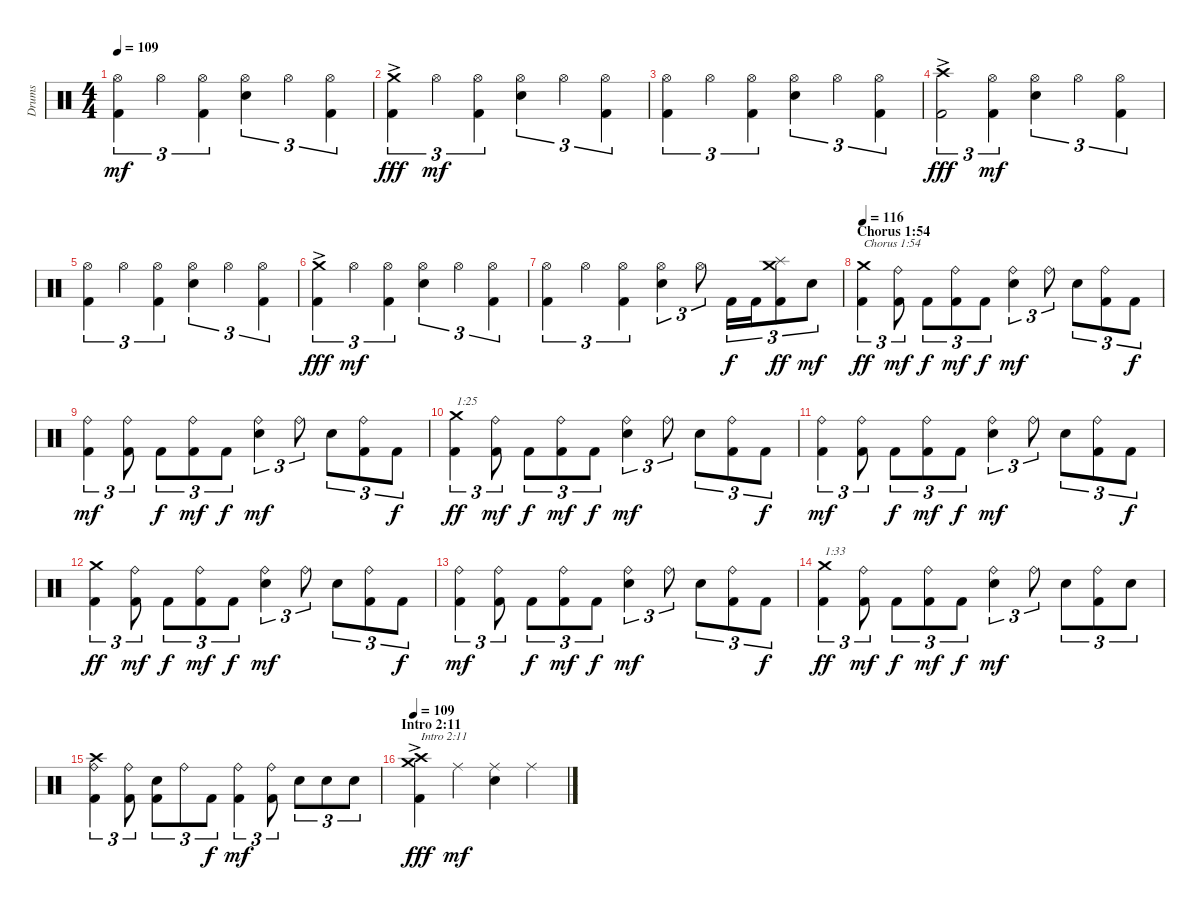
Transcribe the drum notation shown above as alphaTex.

\track ("Drums" "Drums") {instrument percussion}
\staff {score}
\articulation defaults
\ts (4 4)
\tempo 109
\clef neutral
\ks c
("Kick (hit) 2" "Hi-Hat (open)").4{tu (3 2) dy mf} "Hi-Hat (open)".4{tu (3 2)} ("Kick (hit) 2" "Hi-Hat (open)").4{tu (3 2)} ("Electric Snare (hit)" "Hi-Hat (open)").4{tu (3 2)} "Hi-Hat (open)".4{tu (3 2)} ("Kick (hit) 2" "Hi-Hat (open)").4{tu (3 2)} |
("Kick (hit) 2" "Crash medium (hit)"{ac}).4{tu (3 2) dy fff} "Hi-Hat (open)".4{tu (3 2) dy mf} ("Kick (hit) 2" "Hi-Hat (open)").4{tu (3 2)} ("Electric Snare (hit)" "Hi-Hat (open)").4{tu (3 2)} "Hi-Hat (open)".4{tu (3 2)} ("Kick (hit) 2" "Hi-Hat (open)").4{tu (3 2)} |
("Kick (hit) 2" "Hi-Hat (open)").4{tu (3 2)} "Hi-Hat (open)".4{tu (3 2)} ("Kick (hit) 2" "Hi-Hat (open)").4{tu (3 2)} ("Electric Snare (hit)" "Hi-Hat (open)").4{tu (3 2)} "Hi-Hat (open)".4{tu (3 2)} ("Kick (hit) 2" "Hi-Hat (open)").4{tu (3 2)} |
("Kick (hit) 2" "Crash high (hit)"{ac}).2{tu (3 2) dy fff} ("Kick (hit) 2" "Hi-Hat (open)").4{tu (3 2) dy mf} ("Electric Snare (hit)" "Hi-Hat (open)").4{tu (3 2)} "Hi-Hat (open)".4{tu (3 2)} ("Kick (hit) 2" "Hi-Hat (open)").4{tu (3 2)} |
("Kick (hit) 2" "Hi-Hat (open)").4{tu (3 2)} "Hi-Hat (open)".4{tu (3 2)} ("Kick (hit) 2" "Hi-Hat (open)").4{tu (3 2)} ("Electric Snare (hit)" "Hi-Hat (open)").4{tu (3 2)} "Hi-Hat (open)".4{tu (3 2)} ("Kick (hit) 2" "Hi-Hat (open)").4{tu (3 2)} |
("Kick (hit) 2" "Crash medium (hit)"{ac}).4{tu (3 2) dy fff} "Hi-Hat (open)".4{tu (3 2) dy mf} ("Kick (hit) 2" "Hi-Hat (open)").4{tu (3 2)} ("Electric Snare (hit)" "Hi-Hat (open)").4{tu (3 2)} "Hi-Hat (open)".4{tu (3 2)} ("Kick (hit) 2" "Hi-Hat (open)").4{tu (3 2)} |
("Kick (hit) 2" "Hi-Hat (open)").4{tu (3 2)} "Hi-Hat (open)".4{tu (3 2)} ("Kick (hit) 2" "Hi-Hat (open)").4{tu (3 2)} ("Electric Snare (hit)" "Hi-Hat (open)").4{tu (3 2)} "Hi-Hat (open)".8{tu (3 2)} "Kick (hit) 2".16{tu (3 2) dy f} "Kick (hit) 2".16{tu (3 2)} ("Kick (hit) 2" "Splash (hit)" "Crash medium (hit)").8{tu (3 2) dy ff} "Electric Snare (hit)".8{tu (3 2) dy mf} |
\section ("" "Chorus 1:54")
\tempo 116
("Kick (hit) 2" "Crash medium (hit)").4{tu (3 2) txt "Chorus 1:54" dy ff} ("Kick (hit) 2" "Ride (bell)").8{tu (3 2) dy mf} "Kick (hit) 2".8{tu (3 2) dy f} ("Kick (hit) 2" "Ride (bell)").8{tu (3 2) dy mf} "Kick (hit) 2".8{tu (3 2) dy f} ("Electric Snare (hit)" "Ride (bell)").4{tu (3 2) dy mf} "Ride (bell)".8{tu (3 2)} "Electric Snare (hit)".8{tu (3 2)} ("Kick (hit) 2" "Ride (bell)").8{tu (3 2)} "Kick (hit) 2".8{tu (3 2) dy f} |
("Kick (hit) 2" "Ride (bell)").4{tu (3 2) dy mf} ("Kick (hit) 2" "Ride (bell)").8{tu (3 2)} "Kick (hit) 2".8{tu (3 2) dy f} ("Kick (hit) 2" "Ride (bell)").8{tu (3 2) dy mf} "Kick (hit) 2".8{tu (3 2) dy f} ("Electric Snare (hit)" "Ride (bell)").4{tu (3 2) dy mf} "Ride (bell)".8{tu (3 2)} "Electric Snare (hit)".8{tu (3 2)} ("Kick (hit) 2" "Ride (bell)").8{tu (3 2)} "Kick (hit) 2".8{tu (3 2) dy f} |
("Kick (hit) 2" "Crash medium (hit)").4{tu (3 2) txt "1:25" dy ff} ("Kick (hit) 2" "Ride (bell)").8{tu (3 2) dy mf} "Kick (hit) 2".8{tu (3 2) dy f} ("Kick (hit) 2" "Ride (bell)").8{tu (3 2) dy mf} "Kick (hit) 2".8{tu (3 2) dy f} ("Electric Snare (hit)" "Ride (bell)").4{tu (3 2) dy mf} "Ride (bell)".8{tu (3 2)} "Electric Snare (hit)".8{tu (3 2)} ("Kick (hit) 2" "Ride (bell)").8{tu (3 2)} "Kick (hit) 2".8{tu (3 2) dy f} |
("Kick (hit) 2" "Ride (bell)").4{tu (3 2) dy mf} ("Kick (hit) 2" "Ride (bell)").8{tu (3 2)} "Kick (hit) 2".8{tu (3 2) dy f} ("Kick (hit) 2" "Ride (bell)").8{tu (3 2) dy mf} "Kick (hit) 2".8{tu (3 2) dy f} ("Electric Snare (hit)" "Ride (bell)").4{tu (3 2) dy mf} "Ride (bell)".8{tu (3 2)} "Electric Snare (hit)".8{tu (3 2)} ("Kick (hit) 2" "Ride (bell)").8{tu (3 2)} "Kick (hit) 2".8{tu (3 2) dy f} |
("Kick (hit) 2" "Crash medium (hit)").4{tu (3 2) dy ff} ("Kick (hit) 2" "Ride (bell)").8{tu (3 2) dy mf} "Kick (hit) 2".8{tu (3 2) dy f} ("Kick (hit) 2" "Ride (bell)").8{tu (3 2) dy mf} "Kick (hit) 2".8{tu (3 2) dy f} ("Electric Snare (hit)" "Ride (bell)").4{tu (3 2) dy mf} "Ride (bell)".8{tu (3 2)} "Electric Snare (hit)".8{tu (3 2)} ("Kick (hit) 2" "Ride (bell)").8{tu (3 2)} "Kick (hit) 2".8{tu (3 2) dy f} |
("Kick (hit) 2" "Ride (bell)").4{tu (3 2) dy mf} ("Kick (hit) 2" "Ride (bell)").8{tu (3 2)} "Kick (hit) 2".8{tu (3 2) dy f} ("Kick (hit) 2" "Ride (bell)").8{tu (3 2) dy mf} "Kick (hit) 2".8{tu (3 2) dy f} ("Electric Snare (hit)" "Ride (bell)").4{tu (3 2) dy mf} "Ride (bell)".8{tu (3 2)} "Electric Snare (hit)".8{tu (3 2)} ("Kick (hit) 2" "Ride (bell)").8{tu (3 2)} "Kick (hit) 2".8{tu (3 2) dy f} |
("Kick (hit) 2" "Crash medium (hit)").4{tu (3 2) txt "1:33" dy ff} ("Kick (hit) 2" "Ride (bell)").8{tu (3 2) dy mf} "Kick (hit) 2".8{tu (3 2) dy f} ("Kick (hit) 2" "Ride (bell)").8{tu (3 2) dy mf} "Kick (hit) 2".8{tu (3 2) dy f} ("Electric Snare (hit)" "Ride (bell)").4{tu (3 2) dy mf} "Ride (bell)".8{tu (3 2)} "Electric Snare (hit)".8{tu (3 2)} ("Kick (hit) 2" "Ride (bell)").8{tu (3 2)} "Electric Snare (hit)".8{tu (3 2)} |
("Kick (hit) 2" "Ride (bell)" "Crash high (hit)").4{tu (3 2)} ("Kick (hit) 2" "Ride (bell)").8{tu (3 2)} ("Kick (hit) 2" "Electric Snare (hit)").8{tu (3 2)} "Ride (bell)".8{tu (3 2)} "Kick (hit) 2".8{tu (3 2) dy f} ("Kick (hit) 2" "Ride (bell)").4{tu (3 2) dy mf} ("Kick (hit) 2" "Ride (bell)").8{tu (3 2)} "Electric Snare (hit)".8{tu (3 2)} "Electric Snare (hit)".8{tu (3 2)} "Electric Snare (hit)".8{tu (3 2)} |
\section ("" "Intro 2:11")
\tempo 109
("Kick (hit) 2" "Crash high (hit)"{ac} "Crash medium (hit)"{ac}).4{txt "Intro 2:11" dy fff} "Ride (middle)".4{dy mf} ("Electric Snare (hit)" "Ride (middle)").4 "Ride (middle)".4
